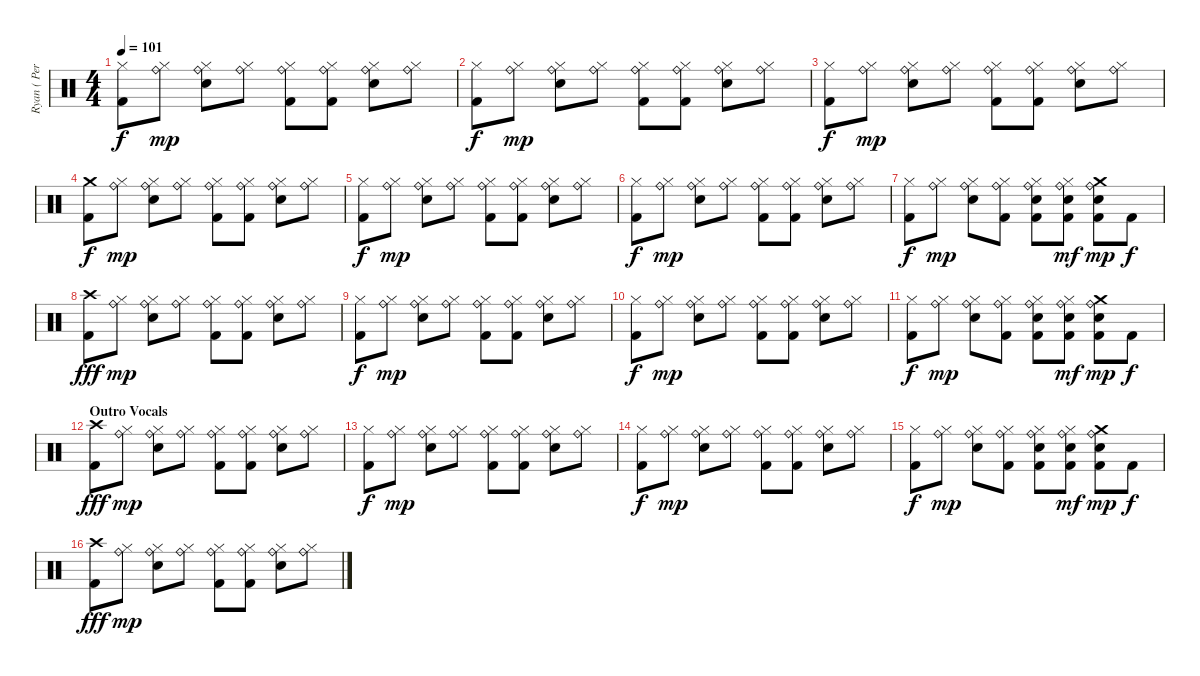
\track ("Ryan ( Percussion )" "Ryan ( Per") {instrument percussion}
\staff {score}
\articulation defaults
\ts (4 4)
\tempo 101
\clef neutral
\ks c
("Hi-Hat (closed)" "Kick (hit) 2").8{dy f} ("Hi-Hat (closed)" "Ride (bell)").8{dy mp} ("Hi-Hat (closed)" "Snare (hit) 2" "Ride (bell)").8 ("Hi-Hat (closed)" "Ride (bell)").8 ("Hi-Hat (closed)" "Kick (hit) 2" "Ride (bell)").8 ("Hi-Hat (closed)" "Kick (hit) 2" "Ride (bell)").8 ("Hi-Hat (closed)" "Snare (hit) 2" "Ride (bell)").8 ("Hi-Hat (closed)" "Ride (bell)").8 |
("Hi-Hat (closed)" "Kick (hit) 2").8{dy f} ("Hi-Hat (closed)" "Ride (bell)").8{dy mp} ("Hi-Hat (closed)" "Snare (hit) 2" "Ride (bell)").8 ("Hi-Hat (closed)" "Ride (bell)").8 ("Hi-Hat (closed)" "Kick (hit) 2" "Ride (bell)").8 ("Hi-Hat (closed)" "Kick (hit) 2" "Ride (bell)").8 ("Hi-Hat (closed)" "Snare (hit) 2" "Ride (bell)").8 ("Hi-Hat (closed)" "Ride (bell)").8 |
("Hi-Hat (closed)" "Kick (hit) 2").8{dy f} ("Hi-Hat (closed)" "Ride (bell)").8{dy mp} ("Hi-Hat (closed)" "Snare (hit) 2" "Ride (bell)").8 ("Hi-Hat (closed)" "Ride (bell)").8 ("Hi-Hat (closed)" "Kick (hit) 2" "Ride (bell)").8 ("Hi-Hat (closed)" "Kick (hit) 2" "Ride (bell)").8 ("Hi-Hat (closed)" "Snare (hit) 2" "Ride (bell)").8 ("Hi-Hat (closed)" "Ride (bell)").8 |
("Crash medium (hit)" "Kick (hit) 2").8{dy f} ("Hi-Hat (closed)" "Ride (bell)").8{dy mp} ("Hi-Hat (closed)" "Snare (hit) 2" "Ride (bell)").8 ("Hi-Hat (closed)" "Ride (bell)").8 ("Hi-Hat (closed)" "Kick (hit) 2" "Ride (bell)").8 ("Hi-Hat (closed)" "Kick (hit) 2" "Ride (bell)").8 ("Hi-Hat (closed)" "Snare (hit) 2" "Ride (bell)").8 ("Hi-Hat (closed)" "Ride (bell)").8 |
("Hi-Hat (closed)" "Kick (hit) 2").8{dy f} ("Hi-Hat (closed)" "Ride (bell)").8{dy mp} ("Hi-Hat (closed)" "Snare (hit) 2" "Ride (bell)").8 ("Hi-Hat (closed)" "Ride (bell)").8 ("Hi-Hat (closed)" "Kick (hit) 2" "Ride (bell)").8 ("Hi-Hat (closed)" "Kick (hit) 2" "Ride (bell)").8 ("Hi-Hat (closed)" "Snare (hit) 2" "Ride (bell)").8 ("Hi-Hat (closed)" "Ride (bell)").8 |
("Hi-Hat (closed)" "Kick (hit) 2").8{dy f} ("Hi-Hat (closed)" "Ride (bell)").8{dy mp} ("Hi-Hat (closed)" "Snare (hit) 2" "Ride (bell)").8 ("Hi-Hat (closed)" "Ride (bell)").8 ("Hi-Hat (closed)" "Kick (hit) 2" "Ride (bell)").8 ("Hi-Hat (closed)" "Kick (hit) 2" "Ride (bell)").8 ("Hi-Hat (closed)" "Snare (hit) 2" "Ride (bell)").8 ("Hi-Hat (closed)" "Ride (bell)").8 |
("Hi-Hat (closed)" "Kick (hit) 2").8{dy f} ("Hi-Hat (closed)" "Ride (bell)").8{dy mp} ("Hi-Hat (closed)" "Snare (hit) 2" "Ride (bell)").8 ("Hi-Hat (closed)" "Kick (hit) 2" "Ride (bell)").8 ("Hi-Hat (closed)" "Kick (hit) 2" "Snare (hit) 2" "Ride (bell)").8 ("Hi-Hat (closed)" "Kick (hit) 2" "Snare (hit) 2" "Ride (bell)").8{dy mf} ("Crash medium (hit)" "Kick (hit) 2" "Snare (hit) 2" "Ride (bell)").8{dy mp} "Kick (hit) 2".8{dy f} |
("Crash high (hit)" "Kick (hit) 2").8{dy fff} ("Hi-Hat (closed)" "Ride (bell)").8{dy mp} ("Hi-Hat (closed)" "Snare (hit) 2" "Ride (bell)").8 ("Hi-Hat (closed)" "Ride (bell)").8 ("Hi-Hat (closed)" "Kick (hit) 2" "Ride (bell)").8 ("Hi-Hat (closed)" "Kick (hit) 2" "Ride (bell)").8 ("Hi-Hat (closed)" "Snare (hit) 2" "Ride (bell)").8 ("Hi-Hat (closed)" "Ride (bell)").8 |
("Hi-Hat (closed)" "Kick (hit) 2").8{dy f} ("Hi-Hat (closed)" "Ride (bell)").8{dy mp} ("Hi-Hat (closed)" "Snare (hit) 2" "Ride (bell)").8 ("Hi-Hat (closed)" "Ride (bell)").8 ("Hi-Hat (closed)" "Kick (hit) 2" "Ride (bell)").8 ("Hi-Hat (closed)" "Kick (hit) 2" "Ride (bell)").8 ("Hi-Hat (closed)" "Snare (hit) 2" "Ride (bell)").8 ("Hi-Hat (closed)" "Ride (bell)").8 |
("Hi-Hat (closed)" "Kick (hit) 2").8{dy f} ("Hi-Hat (closed)" "Ride (bell)").8{dy mp} ("Hi-Hat (closed)" "Snare (hit) 2" "Ride (bell)").8 ("Hi-Hat (closed)" "Ride (bell)").8 ("Hi-Hat (closed)" "Kick (hit) 2" "Ride (bell)").8 ("Hi-Hat (closed)" "Kick (hit) 2" "Ride (bell)").8 ("Hi-Hat (closed)" "Snare (hit) 2" "Ride (bell)").8 ("Hi-Hat (closed)" "Ride (bell)").8 |
("Hi-Hat (closed)" "Kick (hit) 2").8{dy f} ("Hi-Hat (closed)" "Ride (bell)").8{dy mp} ("Hi-Hat (closed)" "Snare (hit) 2" "Ride (bell)").8 ("Hi-Hat (closed)" "Kick (hit) 2" "Ride (bell)").8 ("Hi-Hat (closed)" "Kick (hit) 2" "Snare (hit) 2" "Ride (bell)").8 ("Hi-Hat (closed)" "Kick (hit) 2" "Snare (hit) 2" "Ride (bell)").8{dy mf} ("Crash medium (hit)" "Kick (hit) 2" "Snare (hit) 2" "Ride (bell)").8{dy mp} "Kick (hit) 2".8{dy f} |
\section ("" "Outro Vocals")
("Crash high (hit)" "Kick (hit) 2").8{dy fff} ("Hi-Hat (closed)" "Ride (bell)").8{dy mp} ("Hi-Hat (closed)" "Snare (hit) 2" "Ride (bell)").8 ("Hi-Hat (closed)" "Ride (bell)").8 ("Hi-Hat (closed)" "Kick (hit) 2" "Ride (bell)").8 ("Hi-Hat (closed)" "Kick (hit) 2" "Ride (bell)").8 ("Hi-Hat (closed)" "Snare (hit) 2" "Ride (bell)").8 ("Hi-Hat (closed)" "Ride (bell)").8 |
("Hi-Hat (closed)" "Kick (hit) 2").8{dy f} ("Hi-Hat (closed)" "Ride (bell)").8{dy mp} ("Hi-Hat (closed)" "Snare (hit) 2" "Ride (bell)").8 ("Hi-Hat (closed)" "Ride (bell)").8 ("Hi-Hat (closed)" "Kick (hit) 2" "Ride (bell)").8 ("Hi-Hat (closed)" "Kick (hit) 2" "Ride (bell)").8 ("Hi-Hat (closed)" "Snare (hit) 2" "Ride (bell)").8 ("Hi-Hat (closed)" "Ride (bell)").8 |
("Hi-Hat (closed)" "Kick (hit) 2").8{dy f} ("Hi-Hat (closed)" "Ride (bell)").8{dy mp} ("Hi-Hat (closed)" "Snare (hit) 2" "Ride (bell)").8 ("Hi-Hat (closed)" "Ride (bell)").8 ("Hi-Hat (closed)" "Kick (hit) 2" "Ride (bell)").8 ("Hi-Hat (closed)" "Kick (hit) 2" "Ride (bell)").8 ("Hi-Hat (closed)" "Snare (hit) 2" "Ride (bell)").8 ("Hi-Hat (closed)" "Ride (bell)").8 |
("Hi-Hat (closed)" "Kick (hit) 2").8{dy f} ("Hi-Hat (closed)" "Ride (bell)").8{dy mp} ("Hi-Hat (closed)" "Snare (hit) 2" "Ride (bell)").8 ("Hi-Hat (closed)" "Kick (hit) 2" "Ride (bell)").8 ("Hi-Hat (closed)" "Kick (hit) 2" "Snare (hit) 2" "Ride (bell)").8 ("Hi-Hat (closed)" "Kick (hit) 2" "Snare (hit) 2" "Ride (bell)").8{dy mf} ("Crash medium (hit)" "Kick (hit) 2" "Snare (hit) 2" "Ride (bell)").8{dy mp} "Kick (hit) 2".8{dy f} |
("Crash high (hit)" "Kick (hit) 2").8{dy fff} ("Hi-Hat (closed)" "Ride (bell)").8{dy mp} ("Hi-Hat (closed)" "Snare (hit) 2" "Ride (bell)").8 ("Hi-Hat (closed)" "Ride (bell)").8 ("Hi-Hat (closed)" "Kick (hit) 2" "Ride (bell)").8 ("Hi-Hat (closed)" "Kick (hit) 2" "Ride (bell)").8 ("Hi-Hat (closed)" "Snare (hit) 2" "Ride (bell)").8 ("Hi-Hat (closed)" "Ride (bell)").8
